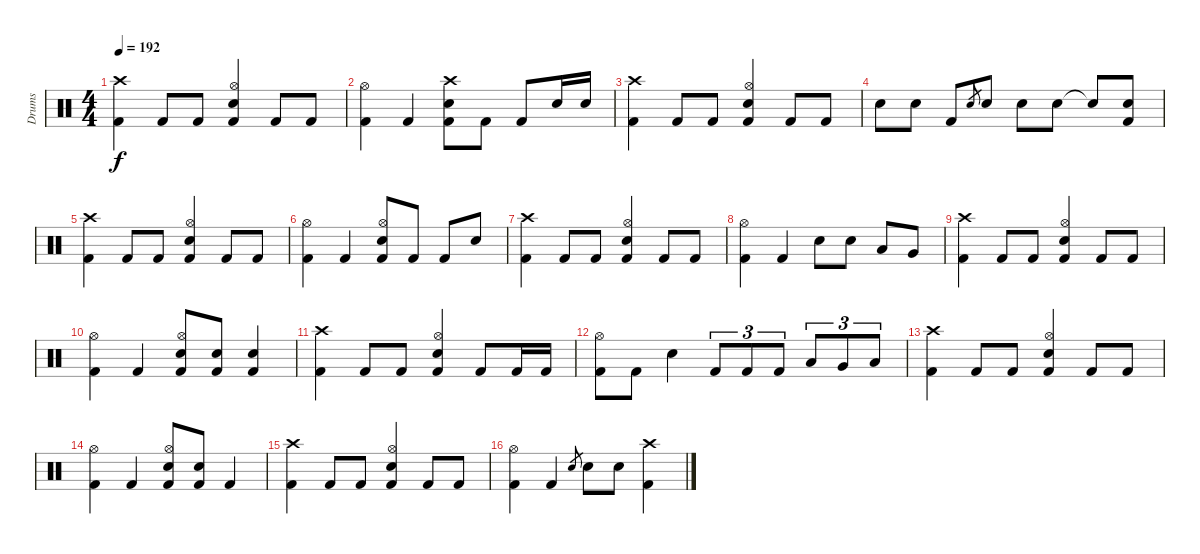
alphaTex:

\track ("Drums" "Drums") {instrument percussion}
\staff {score}
\articulation defaults
\ts (4 4)
\tempo 192
\clef neutral
\ks c
("Crash high (hit)" "Kick (hit) 2").4{dy f} "Kick (hit) 2".8 "Kick (hit) 2".8 ("Hi-Hat (open)" "Snare (hit) 2" "Kick (hit) 2").4 "Kick (hit) 2".8 "Kick (hit) 2".8 |
("Hi-Hat (open)" "Kick (hit) 2").4 "Kick (hit) 2".4 ("Crash high (hit)" "Snare (hit) 2" "Kick (hit) 2").8 "Kick (hit) 2".8 "Kick (hit) 2".8 "Snare (hit) 2".16 "Snare (hit) 2".16 |
("Crash high (hit)" "Kick (hit) 2").4 "Kick (hit) 2".8 "Kick (hit) 2".8 ("Hi-Hat (open)" "Snare (hit) 2" "Kick (hit) 2").4 "Kick (hit) 2".8 "Kick (hit) 2".8 |
"Snare (hit) 2".8 "Snare (hit) 2".8 "Kick (hit) 2".8 "Snare (hit) 2".8{gr} "Snare (hit) 2".8 "Snare (hit) 2".8 "Snare (hit) 2".8 "Snare (hit)"{t}.8 ("Snare (hit) 2" "Kick (hit) 2").8 |
("Crash high (hit)" "Kick (hit) 2").4 "Kick (hit) 2".8 "Kick (hit) 2".8 ("Hi-Hat (open)" "Snare (hit) 2" "Kick (hit) 2").4 "Kick (hit) 2".8 "Kick (hit) 2".8 |
("Hi-Hat (open)" "Kick (hit) 2").4 "Kick (hit) 2".4 ("Hi-Hat (open)" "Snare (hit) 2" "Kick (hit) 2").8 "Kick (hit) 2".8 "Kick (hit) 2".8 "Snare (hit) 2".8 |
("Crash high (hit)" "Kick (hit) 2").4 "Kick (hit) 2".8 "Kick (hit) 2".8 ("Hi-Hat (open)" "Snare (hit) 2" "Kick (hit) 2").4 "Kick (hit) 2".8 "Kick (hit) 2".8 |
("Hi-Hat (open)" "Kick (hit) 2").4 "Kick (hit) 2".4 "Snare (hit) 2".8 "Snare (hit) 2".8 "Low Tom (hit)".8 "Very Low Tom (hit)".8 |
("Crash high (hit)" "Kick (hit) 2").4 "Kick (hit) 2".8 "Kick (hit) 2".8 ("Hi-Hat (open)" "Snare (hit) 2" "Kick (hit) 2").4 "Kick (hit) 2".8 "Kick (hit) 2".8 |
("Hi-Hat (open)" "Kick (hit) 2").4 "Kick (hit) 2".4 ("Hi-Hat (open)" "Snare (hit) 2" "Kick (hit) 2").8 ("Snare (hit) 2" "Kick (hit) 2").8 ("Snare (hit) 2" "Kick (hit) 2").4 |
("Crash high (hit)" "Kick (hit) 2").4 "Kick (hit) 2".8 "Kick (hit) 2".8 ("Hi-Hat (open)" "Snare (hit) 2" "Kick (hit) 2").4 "Kick (hit) 2".8 "Kick (hit) 2".16 "Kick (hit) 2".16 |
("Hi-Hat (open)" "Kick (hit) 2").8 "Kick (hit) 2".8 "Snare (hit) 2".4 "Kick (hit) 2".8{tu (3 2)} "Kick (hit) 2".8{tu (3 2)} "Kick (hit) 2".8{tu (3 2)} "Low Tom (hit)".8{tu (3 2)} "Very Low Tom (hit)".8{tu (3 2)} "Low Floor Tom (hit)".8{tu (3 2)} |
("Crash high (hit)" "Kick (hit) 2").4 "Kick (hit) 2".8 "Kick (hit) 2".8 ("Hi-Hat (open)" "Snare (hit) 2" "Kick (hit) 2").4 "Kick (hit) 2".8 "Kick (hit) 2".8 |
("Hi-Hat (open)" "Kick (hit) 2").4 "Kick (hit) 2".4 ("Hi-Hat (open)" "Snare (hit) 2" "Kick (hit) 2").8 ("Snare (hit) 2" "Kick (hit) 2").8 "Kick (hit) 2".4 |
("Crash high (hit)" "Kick (hit) 2").4 "Kick (hit) 2".8 "Kick (hit) 2".8 ("Hi-Hat (open)" "Snare (hit) 2" "Kick (hit) 2").4 "Kick (hit) 2".8 "Kick (hit) 2".8 |
("Hi-Hat (open)" "Kick (hit) 2").4 "Kick (hit) 2".4 "Snare (hit) 2".8{gr} "Snare (hit) 2".8 "Snare (hit) 2".8 ("Crash high (hit)" "Kick (hit) 2").4
